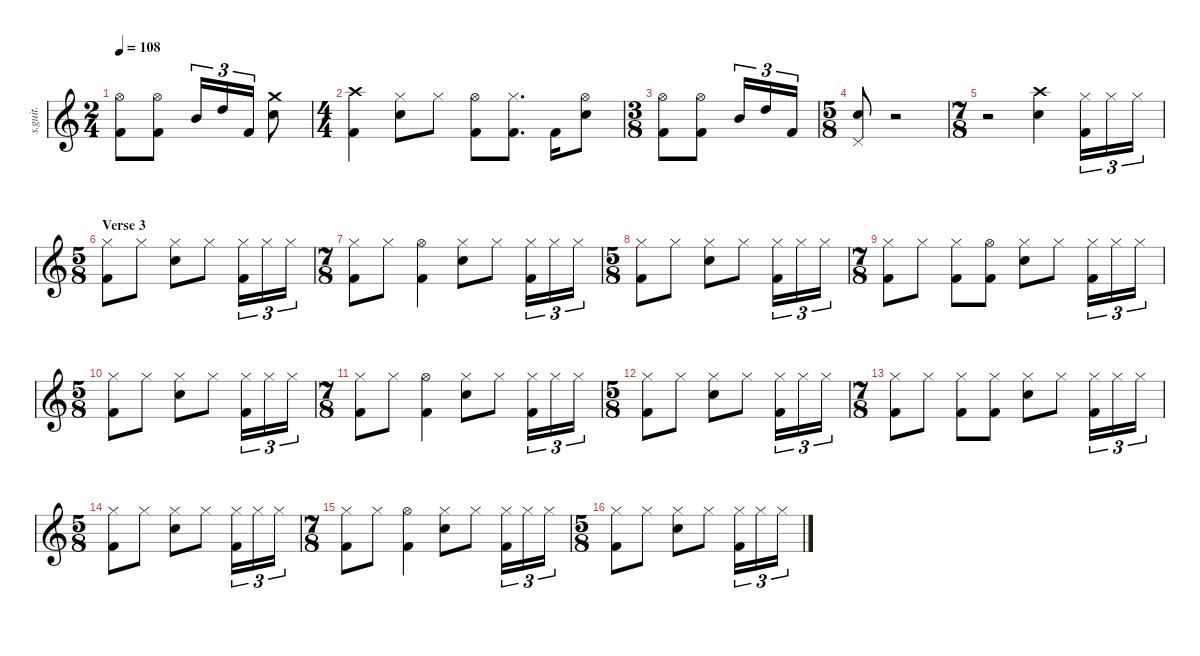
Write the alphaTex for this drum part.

\defaultSystemsLayout 4
\hideDynamics
\bracketExtendMode nobrackets
\track ("Danny Carey" "s.guit.") {instrument percussion}
\staff {score}
\articulation defaults
\ts (2 4)
\beaming (8 2 2 2 2)
\tempo 108
\clef g2
\ks c
("Hi-Hat (open)" "Kick (hit) 2").8{lyrics (0 "") lyrics (1 "") lyrics (2 "") lyrics (3 "") lyrics (4 "") dy f} ("Hi-Hat (open)" "Kick (hit) 2").8{lyrics (0 "") lyrics (1 "") lyrics (2 "") lyrics (3 "") lyrics (4 "")} "Mid Tom (hit)".16{tu (3 2) lyrics (0 "") lyrics (1 "") lyrics (2 "") lyrics (3 "") lyrics (4 "")} "High Tom (hit)".16{tu (3 2) lyrics (0 "") lyrics (1 "") lyrics (2 "") lyrics (3 "") lyrics (4 "")} "Kick (hit) 2".16{tu (3 2) lyrics (0 "") lyrics (1 "") lyrics (2 "") lyrics (3 "") lyrics (4 "")} ("Crash medium (hit)" "Snare (hit) 2").8{lyrics (0 "") lyrics (1 "") lyrics (2 "") lyrics (3 "") lyrics (4 "")} |
\ts (4 4)
\beaming (8 2 2 2 2)
("Crash high (hit)" "Kick (hit) 2").4{lyrics (0 "") lyrics (1 "") lyrics (2 "") lyrics (3 "") lyrics (4 "")} ("Hi-Hat (closed)" "Snare (hit) 2").8{lyrics (0 "") lyrics (1 "") lyrics (2 "") lyrics (3 "") lyrics (4 "")} "Hi-Hat (closed)".8{lyrics (0 "") lyrics (1 "") lyrics (2 "") lyrics (3 "") lyrics (4 "")} ("Hi-Hat (open)" "Kick (hit) 2").8{lyrics (0 "") lyrics (1 "") lyrics (2 "") lyrics (3 "") lyrics (4 "")} ("Hi-Hat (closed)" "Kick (hit) 2").8{d lyrics (0 "") lyrics (1 "") lyrics (2 "") lyrics (3 "") lyrics (4 "")} "Kick (hit) 2".16{lyrics (0 "") lyrics (1 "") lyrics (2 "") lyrics (3 "") lyrics (4 "")} ("Hi-Hat (open)" "Snare (hit) 2").8{lyrics (0 "") lyrics (1 "") lyrics (2 "") lyrics (3 "") lyrics (4 "")} |
\ts (3 8)
\beaming (8 2 2 2 2)
("Hi-Hat (open)" "Kick (hit) 2").8{lyrics (0 "") lyrics (1 "") lyrics (2 "") lyrics (3 "") lyrics (4 "")} ("Hi-Hat (open)" "Kick (hit) 2").8{lyrics (0 "") lyrics (1 "") lyrics (2 "") lyrics (3 "") lyrics (4 "")} "Mid Tom (hit)".16{tu (3 2) lyrics (0 "") lyrics (1 "") lyrics (2 "") lyrics (3 "") lyrics (4 "")} "High Tom (hit)".16{tu (3 2) lyrics (0 "") lyrics (1 "") lyrics (2 "") lyrics (3 "") lyrics (4 "")} "Kick (hit) 2".16{tu (3 2) lyrics (0 "") lyrics (1 "") lyrics (2 "") lyrics (3 "") lyrics (4 "")} |
\ts (5 8)
\beaming (8 2 2 2 2)
("Snare (hit) 2" "Pedal Hi-Hat (hit)").8{lyrics (0 "") lyrics (1 "") lyrics (2 "") lyrics (3 "") lyrics (4 "")} r.2 |
\ts (7 8)
\beaming (8 2 2 2 2)
r.2 ("Crash high (hit)" "Snare (hit) 2").4{lyrics (0 "") lyrics (1 "") lyrics (2 "") lyrics (3 "") lyrics (4 "")} ("Hi-Hat (closed)" "Kick (hit) 2").16{tu (3 2) lyrics (0 "") lyrics (1 "") lyrics (2 "") lyrics (3 "") lyrics (4 "")} "Hi-Hat (closed)".16{tu (3 2) lyrics (0 "") lyrics (1 "") lyrics (2 "") lyrics (3 "") lyrics (4 "")} "Hi-Hat (closed)".16{tu (3 2) lyrics (0 "") lyrics (1 "") lyrics (2 "") lyrics (3 "") lyrics (4 "")} |
\ts (5 8)
\beaming (8 2 2 2 2)
\section ("" "Verse 3")
("Hi-Hat (closed)" "Kick (hit) 2").8{lyrics (0 "") lyrics (1 "") lyrics (2 "") lyrics (3 "") lyrics (4 "")} "Hi-Hat (closed)".8{lyrics (0 "") lyrics (1 "") lyrics (2 "") lyrics (3 "") lyrics (4 "")} ("Hi-Hat (closed)" "Snare (hit) 2").8{lyrics (0 "") lyrics (1 "") lyrics (2 "") lyrics (3 "") lyrics (4 "")} "Hi-Hat (closed)".8{lyrics (0 "") lyrics (1 "") lyrics (2 "") lyrics (3 "") lyrics (4 "")} ("Hi-Hat (closed)" "Kick (hit) 2").16{tu (3 2) lyrics (0 "") lyrics (1 "") lyrics (2 "") lyrics (3 "") lyrics (4 "")} "Hi-Hat (closed)".16{tu (3 2) lyrics (0 "") lyrics (1 "") lyrics (2 "") lyrics (3 "") lyrics (4 "")} "Hi-Hat (closed)".16{tu (3 2) lyrics (0 "") lyrics (1 "") lyrics (2 "") lyrics (3 "") lyrics (4 "")} |
\ts (7 8)
\beaming (8 2 2 2 2)
("Hi-Hat (closed)" "Kick (hit) 2").8{lyrics (0 "") lyrics (1 "") lyrics (2 "") lyrics (3 "") lyrics (4 "")} "Hi-Hat (closed)".8{lyrics (0 "") lyrics (1 "") lyrics (2 "") lyrics (3 "") lyrics (4 "")} ("Hi-Hat (open)" "Kick (hit) 2").4{lyrics (0 "") lyrics (1 "") lyrics (2 "") lyrics (3 "") lyrics (4 "")} ("Hi-Hat (closed)" "Snare (hit) 2").8{lyrics (0 "") lyrics (1 "") lyrics (2 "") lyrics (3 "") lyrics (4 "")} "Hi-Hat (closed)".8{lyrics (0 "") lyrics (1 "") lyrics (2 "") lyrics (3 "") lyrics (4 "")} ("Hi-Hat (closed)" "Kick (hit) 2").16{tu (3 2) lyrics (0 "") lyrics (1 "") lyrics (2 "") lyrics (3 "") lyrics (4 "")} "Hi-Hat (closed)".16{tu (3 2) lyrics (0 "") lyrics (1 "") lyrics (2 "") lyrics (3 "") lyrics (4 "")} "Hi-Hat (closed)".16{tu (3 2) lyrics (0 "") lyrics (1 "") lyrics (2 "") lyrics (3 "") lyrics (4 "")} |
\ts (5 8)
\beaming (8 2 2 2 2)
("Hi-Hat (closed)" "Kick (hit) 2").8{lyrics (0 "") lyrics (1 "") lyrics (2 "") lyrics (3 "") lyrics (4 "")} "Hi-Hat (closed)".8{lyrics (0 "") lyrics (1 "") lyrics (2 "") lyrics (3 "") lyrics (4 "")} ("Hi-Hat (closed)" "Snare (hit) 2").8{lyrics (0 "") lyrics (1 "") lyrics (2 "") lyrics (3 "") lyrics (4 "")} "Hi-Hat (closed)".8{lyrics (0 "") lyrics (1 "") lyrics (2 "") lyrics (3 "") lyrics (4 "")} ("Hi-Hat (closed)" "Kick (hit) 2").16{tu (3 2) lyrics (0 "") lyrics (1 "") lyrics (2 "") lyrics (3 "") lyrics (4 "")} "Hi-Hat (closed)".16{tu (3 2) lyrics (0 "") lyrics (1 "") lyrics (2 "") lyrics (3 "") lyrics (4 "")} "Hi-Hat (closed)".16{tu (3 2) lyrics (0 "") lyrics (1 "") lyrics (2 "") lyrics (3 "") lyrics (4 "")} |
\ts (7 8)
\beaming (8 2 2 2 2)
("Hi-Hat (closed)" "Kick (hit) 2").8{lyrics (0 "") lyrics (1 "") lyrics (2 "") lyrics (3 "") lyrics (4 "")} "Hi-Hat (closed)".8{lyrics (0 "") lyrics (1 "") lyrics (2 "") lyrics (3 "") lyrics (4 "")} ("Hi-Hat (closed)" "Kick (hit) 2").8{lyrics (0 "") lyrics (1 "") lyrics (2 "") lyrics (3 "") lyrics (4 "")} ("Hi-Hat (open)" "Kick (hit) 2").8{lyrics (0 "") lyrics (1 "") lyrics (2 "") lyrics (3 "") lyrics (4 "")} ("Hi-Hat (closed)" "Snare (hit) 2").8{lyrics (0 "") lyrics (1 "") lyrics (2 "") lyrics (3 "") lyrics (4 "")} "Hi-Hat (closed)".8{lyrics (0 "") lyrics (1 "") lyrics (2 "") lyrics (3 "") lyrics (4 "")} ("Hi-Hat (closed)" "Kick (hit) 2").16{tu (3 2) lyrics (0 "") lyrics (1 "") lyrics (2 "") lyrics (3 "") lyrics (4 "")} "Hi-Hat (closed)".16{tu (3 2) lyrics (0 "") lyrics (1 "") lyrics (2 "") lyrics (3 "") lyrics (4 "")} "Hi-Hat (closed)".16{tu (3 2) lyrics (0 "") lyrics (1 "") lyrics (2 "") lyrics (3 "") lyrics (4 "")} |
\ts (5 8)
\beaming (8 2 2 2 2)
("Hi-Hat (closed)" "Kick (hit) 2").8{lyrics (0 "") lyrics (1 "") lyrics (2 "") lyrics (3 "") lyrics (4 "")} "Hi-Hat (closed)".8{lyrics (0 "") lyrics (1 "") lyrics (2 "") lyrics (3 "") lyrics (4 "")} ("Hi-Hat (closed)" "Snare (hit) 2").8{lyrics (0 "") lyrics (1 "") lyrics (2 "") lyrics (3 "") lyrics (4 "")} "Hi-Hat (closed)".8{lyrics (0 "") lyrics (1 "") lyrics (2 "") lyrics (3 "") lyrics (4 "")} ("Hi-Hat (closed)" "Kick (hit) 2").16{tu (3 2) lyrics (0 "") lyrics (1 "") lyrics (2 "") lyrics (3 "") lyrics (4 "")} "Hi-Hat (closed)".16{tu (3 2) lyrics (0 "") lyrics (1 "") lyrics (2 "") lyrics (3 "") lyrics (4 "")} "Hi-Hat (closed)".16{tu (3 2) lyrics (0 "") lyrics (1 "") lyrics (2 "") lyrics (3 "") lyrics (4 "")} |
\ts (7 8)
\beaming (8 2 2 2 2)
("Hi-Hat (closed)" "Kick (hit) 2").8{lyrics (0 "") lyrics (1 "") lyrics (2 "") lyrics (3 "") lyrics (4 "")} "Hi-Hat (closed)".8{lyrics (0 "") lyrics (1 "") lyrics (2 "") lyrics (3 "") lyrics (4 "")} ("Hi-Hat (open)" "Kick (hit) 2").4{lyrics (0 "") lyrics (1 "") lyrics (2 "") lyrics (3 "") lyrics (4 "")} ("Hi-Hat (closed)" "Snare (hit) 2").8{lyrics (0 "") lyrics (1 "") lyrics (2 "") lyrics (3 "") lyrics (4 "")} "Hi-Hat (closed)".8{lyrics (0 "") lyrics (1 "") lyrics (2 "") lyrics (3 "") lyrics (4 "")} ("Hi-Hat (closed)" "Kick (hit) 2").16{tu (3 2) lyrics (0 "") lyrics (1 "") lyrics (2 "") lyrics (3 "") lyrics (4 "")} "Hi-Hat (closed)".16{tu (3 2) lyrics (0 "") lyrics (1 "") lyrics (2 "") lyrics (3 "") lyrics (4 "")} "Hi-Hat (closed)".16{tu (3 2) lyrics (0 "") lyrics (1 "") lyrics (2 "") lyrics (3 "") lyrics (4 "")} |
\ts (5 8)
\beaming (8 2 2 2 2)
("Hi-Hat (closed)" "Kick (hit) 2").8{lyrics (0 "") lyrics (1 "") lyrics (2 "") lyrics (3 "") lyrics (4 "")} "Hi-Hat (closed)".8{lyrics (0 "") lyrics (1 "") lyrics (2 "") lyrics (3 "") lyrics (4 "")} ("Hi-Hat (closed)" "Snare (hit) 2").8{lyrics (0 "") lyrics (1 "") lyrics (2 "") lyrics (3 "") lyrics (4 "")} "Hi-Hat (closed)".8{lyrics (0 "") lyrics (1 "") lyrics (2 "") lyrics (3 "") lyrics (4 "")} ("Hi-Hat (closed)" "Kick (hit) 2").16{tu (3 2) lyrics (0 "") lyrics (1 "") lyrics (2 "") lyrics (3 "") lyrics (4 "")} "Hi-Hat (closed)".16{tu (3 2) lyrics (0 "") lyrics (1 "") lyrics (2 "") lyrics (3 "") lyrics (4 "")} "Hi-Hat (closed)".16{tu (3 2) lyrics (0 "") lyrics (1 "") lyrics (2 "") lyrics (3 "") lyrics (4 "")} |
\ts (7 8)
\beaming (8 2 2 2 2)
("Hi-Hat (closed)" "Kick (hit) 2").8{lyrics (0 "") lyrics (1 "") lyrics (2 "") lyrics (3 "") lyrics (4 "")} "Hi-Hat (closed)".8{lyrics (0 "") lyrics (1 "") lyrics (2 "") lyrics (3 "") lyrics (4 "")} ("Hi-Hat (closed)" "Kick (hit) 2").8{lyrics (0 "") lyrics (1 "") lyrics (2 "") lyrics (3 "") lyrics (4 "")} ("Hi-Hat (closed)" "Kick (hit) 2").8{lyrics (0 "") lyrics (1 "") lyrics (2 "") lyrics (3 "") lyrics (4 "")} ("Hi-Hat (closed)" "Snare (hit) 2").8{lyrics (0 "") lyrics (1 "") lyrics (2 "") lyrics (3 "") lyrics (4 "")} "Hi-Hat (closed)".8{lyrics (0 "") lyrics (1 "") lyrics (2 "") lyrics (3 "") lyrics (4 "")} ("Hi-Hat (closed)" "Kick (hit) 2").16{tu (3 2) lyrics (0 "") lyrics (1 "") lyrics (2 "") lyrics (3 "") lyrics (4 "")} "Hi-Hat (closed)".16{tu (3 2) lyrics (0 "") lyrics (1 "") lyrics (2 "") lyrics (3 "") lyrics (4 "")} "Hi-Hat (closed)".16{tu (3 2) lyrics (0 "") lyrics (1 "") lyrics (2 "") lyrics (3 "") lyrics (4 "")} |
\ts (5 8)
\beaming (8 2 2 2 2)
("Hi-Hat (closed)" "Kick (hit) 2").8{lyrics (0 "") lyrics (1 "") lyrics (2 "") lyrics (3 "") lyrics (4 "")} "Hi-Hat (closed)".8{lyrics (0 "") lyrics (1 "") lyrics (2 "") lyrics (3 "") lyrics (4 "")} ("Hi-Hat (closed)" "Snare (hit) 2").8{lyrics (0 "") lyrics (1 "") lyrics (2 "") lyrics (3 "") lyrics (4 "")} "Hi-Hat (closed)".8{lyrics (0 "") lyrics (1 "") lyrics (2 "") lyrics (3 "") lyrics (4 "")} ("Hi-Hat (closed)" "Kick (hit) 2").16{tu (3 2) lyrics (0 "") lyrics (1 "") lyrics (2 "") lyrics (3 "") lyrics (4 "")} "Hi-Hat (closed)".16{tu (3 2) lyrics (0 "") lyrics (1 "") lyrics (2 "") lyrics (3 "") lyrics (4 "")} "Hi-Hat (closed)".16{tu (3 2) lyrics (0 "") lyrics (1 "") lyrics (2 "") lyrics (3 "") lyrics (4 "")} |
\ts (7 8)
\beaming (8 2 2 2 2)
("Hi-Hat (closed)" "Kick (hit) 2").8{lyrics (0 "") lyrics (1 "") lyrics (2 "") lyrics (3 "") lyrics (4 "")} "Hi-Hat (closed)".8{lyrics (0 "") lyrics (1 "") lyrics (2 "") lyrics (3 "") lyrics (4 "")} ("Hi-Hat (open)" "Kick (hit) 2").4{lyrics (0 "") lyrics (1 "") lyrics (2 "") lyrics (3 "") lyrics (4 "")} ("Hi-Hat (closed)" "Snare (hit) 2").8{lyrics (0 "") lyrics (1 "") lyrics (2 "") lyrics (3 "") lyrics (4 "")} "Hi-Hat (closed)".8{lyrics (0 "") lyrics (1 "") lyrics (2 "") lyrics (3 "") lyrics (4 "")} ("Hi-Hat (closed)" "Kick (hit) 2").16{tu (3 2) lyrics (0 "") lyrics (1 "") lyrics (2 "") lyrics (3 "") lyrics (4 "")} "Hi-Hat (closed)".16{tu (3 2) lyrics (0 "") lyrics (1 "") lyrics (2 "") lyrics (3 "") lyrics (4 "")} "Hi-Hat (closed)".16{tu (3 2) lyrics (0 "") lyrics (1 "") lyrics (2 "") lyrics (3 "") lyrics (4 "")} |
\ts (5 8)
\beaming (8 2 2 2 2)
("Hi-Hat (closed)" "Kick (hit) 2").8{lyrics (0 "") lyrics (1 "") lyrics (2 "") lyrics (3 "") lyrics (4 "")} "Hi-Hat (closed)".8{lyrics (0 "") lyrics (1 "") lyrics (2 "") lyrics (3 "") lyrics (4 "")} ("Hi-Hat (closed)" "Snare (hit) 2").8{lyrics (0 "") lyrics (1 "") lyrics (2 "") lyrics (3 "") lyrics (4 "")} "Hi-Hat (closed)".8{lyrics (0 "") lyrics (1 "") lyrics (2 "") lyrics (3 "") lyrics (4 "")} ("Hi-Hat (closed)" "Kick (hit) 2").16{tu (3 2) lyrics (0 "") lyrics (1 "") lyrics (2 "") lyrics (3 "") lyrics (4 "")} "Hi-Hat (closed)".16{tu (3 2) lyrics (0 "") lyrics (1 "") lyrics (2 "") lyrics (3 "") lyrics (4 "")} "Hi-Hat (closed)".16{tu (3 2) lyrics (0 "") lyrics (1 "") lyrics (2 "") lyrics (3 "") lyrics (4 "")}
